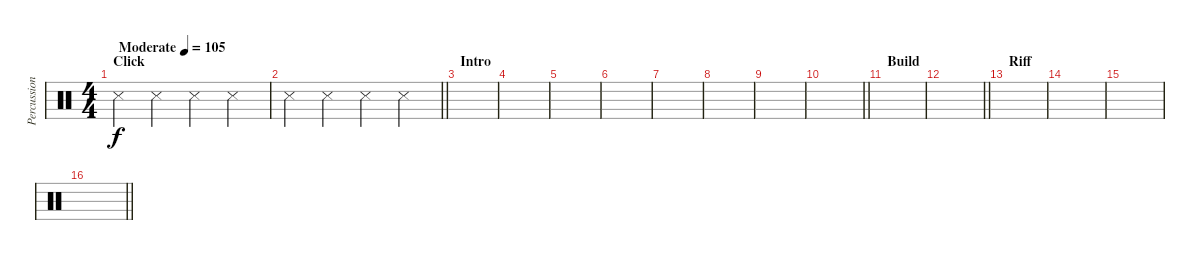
\track ("Percussion" "Percussion") {instrument percussion}
\staff {score}
\articulation defaults
\ts (4 4)
\section ("" "Click")
\tempo (105 "Moderate")
\clef neutral
\ks c "Snare (side stick) 3".4{dy f} "Snare (side stick) 3".4 "Snare (side stick) 3".4 "Snare (side stick) 3".4
|
\barLineRight lightlight "Snare (side stick) 3".4 "Snare (side stick) 3".4 "Snare (side stick) 3".4 "Snare (side stick) 3".4
|
\section ("" "Intro")
|
|
|
|
|
|
|
\barLineRight lightlight
|
\section ("" "Build")
|
\barLineRight lightlight
|
\section ("" "Riff")
|
|
|
\barLineRight lightlight
